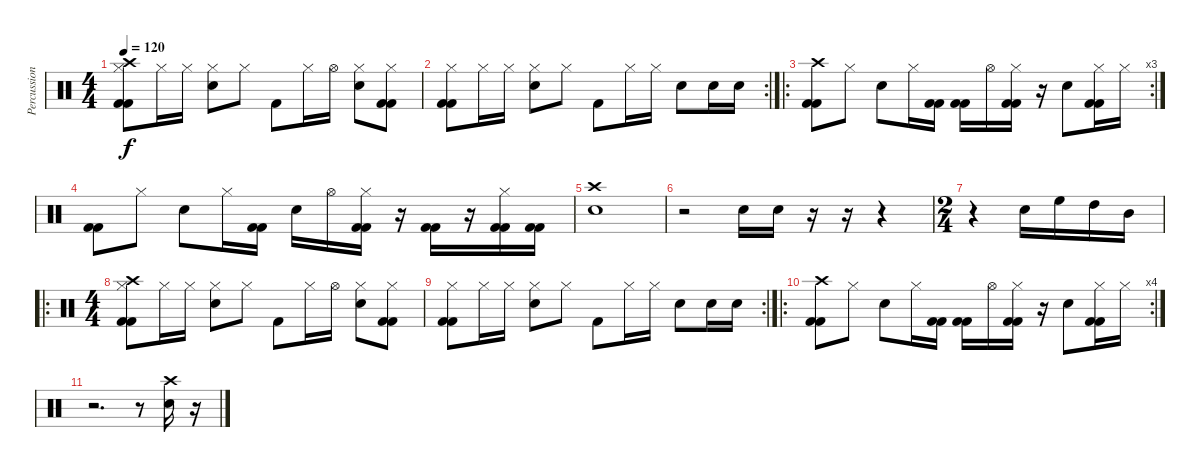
\track ("Percussions" "Percussion") {instrument percussion}
\staff {score}
\articulation defaults
\ts (4 4)
\tempo 120
\clef neutral
\ks c
("Kick (hit) 2" "Kick (hit) 2" "Crash high (hit)" "Hi-Hat (closed)").8{dy f} "Hi-Hat (closed)".16 "Hi-Hat (closed)".16 ("Electric Snare (hit)" "Hi-Hat (closed)").8 "Hi-Hat (closed)".8 "Kick (hit) 2".8 "Hi-Hat (closed)".16 "Hi-Hat (open)".16 ("Electric Snare (hit)" "Hi-Hat (closed)").8 ("Kick (hit) 2" "Kick (hit) 2" "Hi-Hat (closed)").8 |
\rc 2
("Kick (hit) 2" "Kick (hit) 2" "Hi-Hat (closed)").8 "Hi-Hat (closed)".16 "Hi-Hat (closed)".16 ("Electric Snare (hit)" "Hi-Hat (closed)").8 "Hi-Hat (closed)".8 "Kick (hit) 2".8 "Hi-Hat (closed)".16 "Hi-Hat (closed)".16 "Electric Snare (hit)".8 "Electric Snare (hit)".16 "Electric Snare (hit)".16 |
\ro
\rc 3
("Kick (hit) 2" "Kick (hit) 2" "Crash high (hit)").8 "Hi-Hat (closed)".8 "Electric Snare (hit)".8 "Hi-Hat (closed)".16 ("Kick (hit) 2" "Kick (hit) 2").16 ("Kick (hit) 2" "Kick (hit) 2").16 "Hi-Hat (open)".16 ("Kick (hit) 2" "Kick (hit) 2" "Hi-Hat (closed)").16 r.16 "Electric Snare (hit)".8 ("Kick (hit) 2" "Kick (hit) 2" "Hi-Hat (closed)").16 "Hi-Hat (closed)".16 |
("Kick (hit) 2" "Kick (hit) 2").8 "Hi-Hat (closed)".8 "Electric Snare (hit)".8 "Hi-Hat (closed)".16 ("Kick (hit) 2" "Kick (hit) 2").16 "Electric Snare (hit)".16 "Hi-Hat (open)".16 ("Kick (hit) 2" "Kick (hit) 2" "Hi-Hat (closed)").16 r.16 ("Kick (hit) 2" "Kick (hit) 2").16 r.16 ("Kick (hit) 2" "Kick (hit) 2" "Hi-Hat (closed)").16 ("Kick (hit) 2" "Kick (hit) 2").16 |
("Electric Snare (hit)" "Crash high (hit)").1 |
r.2 "Electric Snare (hit)".16 "Electric Snare (hit)".16 r.16 r.16 r.4 |
\ts (2 4)
r.4 "Electric Snare (hit)".16 "High Floor Tom (hit)".16 "High Tom (hit)".16 "Mid Tom (hit)".16 |
\ro
\ts (4 4)
("Kick (hit) 2" "Kick (hit) 2" "Crash high (hit)" "Hi-Hat (closed)").8 "Hi-Hat (closed)".16 "Hi-Hat (closed)".16 ("Electric Snare (hit)" "Hi-Hat (closed)").8 "Hi-Hat (closed)".8 "Kick (hit) 2".8 "Hi-Hat (closed)".16 "Hi-Hat (open)".16 ("Electric Snare (hit)" "Hi-Hat (closed)").8 ("Kick (hit) 2" "Kick (hit) 2" "Hi-Hat (closed)").8 |
\rc 2
("Kick (hit) 2" "Kick (hit) 2" "Hi-Hat (closed)").8 "Hi-Hat (closed)".16 "Hi-Hat (closed)".16 ("Electric Snare (hit)" "Hi-Hat (closed)").8 "Hi-Hat (closed)".8 "Kick (hit) 2".8 "Hi-Hat (closed)".16 "Hi-Hat (closed)".16 "Electric Snare (hit)".8 "Electric Snare (hit)".16 "Electric Snare (hit)".16 |
\ro
\rc 4
("Kick (hit) 2" "Kick (hit) 2" "Crash high (hit)").8 "Hi-Hat (closed)".8 "Electric Snare (hit)".8 "Hi-Hat (closed)".16 ("Kick (hit) 2" "Kick (hit) 2").16 ("Kick (hit) 2" "Kick (hit) 2").16 "Hi-Hat (open)".16 ("Kick (hit) 2" "Kick (hit) 2" "Hi-Hat (closed)").16 r.16 "Electric Snare (hit)".8 ("Kick (hit) 2" "Kick (hit) 2" "Hi-Hat (closed)").16 "Hi-Hat (closed)".16 |
r.2{d} r.8 ("Electric Snare (hit)" "Crash high (hit)").16 r.16
